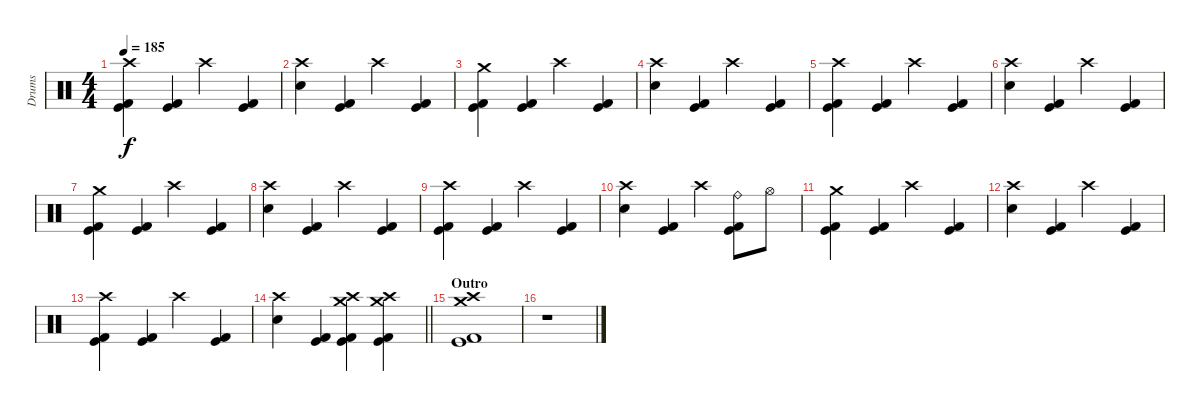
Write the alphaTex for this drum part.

\track ("Drums" "Drums") {instrument percussion}
\staff {score}
\articulation defaults
\ts (4 4)
\tempo 185
\clef neutral
\ks c
("Crash high (hit)" "Kick (hit) 2" "Kick (hit)").4{dy f} ("Kick (hit) 2" "Kick (hit)").4 "Crash high (hit)".4 ("Kick (hit) 2" "Kick (hit)").4 |
("Crash high (hit)" "Electric Snare (hit)").4 ("Kick (hit) 2" "Kick (hit)").4 "Crash high (hit)".4 ("Kick (hit) 2" "Kick (hit)").4 |
("Crash medium (hit)" "Kick (hit) 2" "Kick (hit)").4 ("Kick (hit) 2" "Kick (hit)").4 "Crash high (hit)".4 ("Kick (hit) 2" "Kick (hit)").4 |
("Crash high (hit)" "Electric Snare (hit)").4 ("Kick (hit) 2" "Kick (hit)").4 "Crash high (hit)".4 ("Kick (hit) 2" "Kick (hit)").4 |
("Crash high (hit)" "Kick (hit) 2" "Kick (hit)").4 ("Kick (hit) 2" "Kick (hit)").4 "Crash high (hit)".4 ("Kick (hit) 2" "Kick (hit)").4 |
("Crash high (hit)" "Electric Snare (hit)").4 ("Kick (hit) 2" "Kick (hit)").4 "Crash high (hit)".4 ("Kick (hit) 2" "Kick (hit)").4 |
("Crash medium (hit)" "Kick (hit) 2" "Kick (hit)").4 ("Kick (hit) 2" "Kick (hit)").4 "Crash high (hit)".4 ("Kick (hit) 2" "Kick (hit)").4 |
("Crash high (hit)" "Electric Snare (hit)").4 ("Kick (hit) 2" "Kick (hit)").4 "Crash high (hit)".4 ("Kick (hit) 2" "Kick (hit)").4 |
("Crash high (hit)" "Kick (hit) 2" "Kick (hit)").4 ("Kick (hit) 2" "Kick (hit)").4 "Crash high (hit)".4 ("Kick (hit) 2" "Kick (hit)").4 |
("Crash high (hit)" "Electric Snare (hit)").4 ("Kick (hit) 2" "Kick (hit)").4 "Crash high (hit)".4 ("Ride (bell)" "Kick (hit) 2" "Kick (hit)").8 "Hi-Hat (open)".8 |
("Crash medium (hit)" "Kick (hit) 2" "Kick (hit)").4 ("Kick (hit) 2" "Kick (hit)").4 "Crash high (hit)".4 ("Kick (hit) 2" "Kick (hit)").4 |
("Crash high (hit)" "Electric Snare (hit)").4 ("Kick (hit) 2" "Kick (hit)").4 "Crash high (hit)".4 ("Kick (hit) 2" "Kick (hit)").4 |
("Crash high (hit)" "Kick (hit) 2" "Kick (hit)").4 ("Kick (hit) 2" "Kick (hit)").4 "Crash high (hit)".4 ("Kick (hit) 2" "Kick (hit)").4 |
\barLineRight lightlight
("Crash high (hit)" "Electric Snare (hit)").4 ("Kick (hit) 2" "Kick (hit)").4 ("Crash high (hit)" "Crash medium (hit)" "Kick (hit) 2" "Kick (hit)").4 ("Crash high (hit)" "Crash medium (hit)" "Kick (hit) 2" "Kick (hit)").4 |
\section ("" "Outro")
("Crash high (hit)" "Crash medium (hit)" "Kick (hit) 2" "Kick (hit)").1 |
r.1
